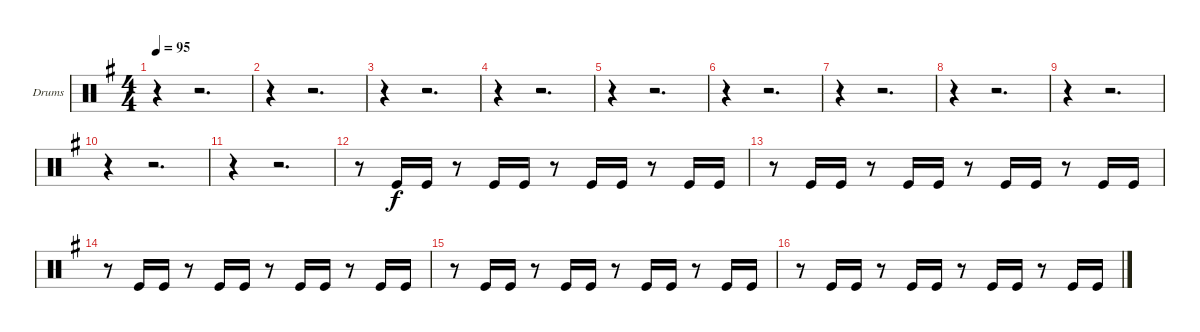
\bracketExtendMode groupsimilarinstruments
\firstSystemTrackNameOrientation horizontal
\otherSystemsTrackNameOrientation horizontal
\track ("Drumkit" "Drums") {instrument percussion}
\staff {score}
\articulation defaults
\ts (4 4)
\tempo 95
\clef neutral
\ks g
r.4{dy f} r.2{d} |
r.4 r.2{d} |
r.4 r.2{d} |
r.4 r.2{d} |
r.4 r.2{d} |
r.4 r.2{d} |
r.4 r.2{d} |
r.4 r.2{d} |
r.4 r.2{d} |
r.4 r.2{d} |
r.4 r.2{d} |
r.8 "Kick (hit)".16 "Kick (hit)".16 r.8 "Kick (hit)".16 "Kick (hit)".16 r.8 "Kick (hit)".16 "Kick (hit)".16 r.8 "Kick (hit)".16 "Kick (hit)".16 |
r.8 "Kick (hit)".16 "Kick (hit)".16 r.8 "Kick (hit)".16 "Kick (hit)".16 r.8 "Kick (hit)".16 "Kick (hit)".16 r.8 "Kick (hit)".16 "Kick (hit)".16 |
r.8 "Kick (hit)".16 "Kick (hit)".16 r.8 "Kick (hit)".16 "Kick (hit)".16 r.8 "Kick (hit)".16 "Kick (hit)".16 r.8 "Kick (hit)".16 "Kick (hit)".16 |
r.8 "Kick (hit)".16 "Kick (hit)".16 r.8 "Kick (hit)".16 "Kick (hit)".16 r.8 "Kick (hit)".16 "Kick (hit)".16 r.8 "Kick (hit)".16 "Kick (hit)".16 |
r.8 "Kick (hit)".16 "Kick (hit)".16 r.8 "Kick (hit)".16 "Kick (hit)".16 r.8 "Kick (hit)".16 "Kick (hit)".16 r.8 "Kick (hit)".16 "Kick (hit)".16
